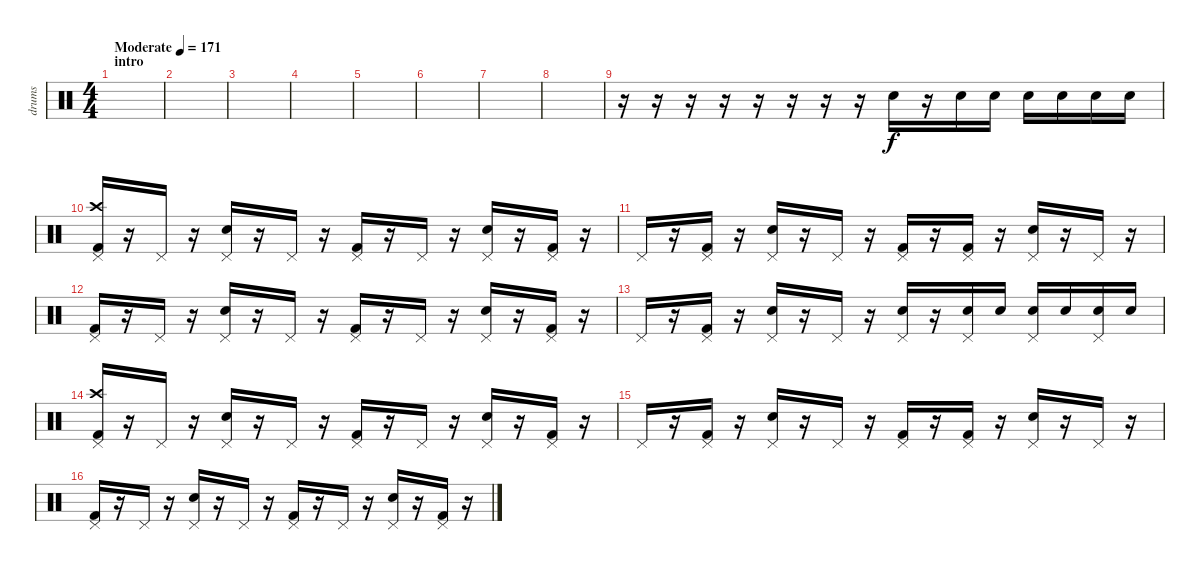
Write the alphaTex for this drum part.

\track ("drums" "drums") {instrument percussion}
\staff {score}
\articulation defaults
\ts (4 4)
\section ("" "intro")
\tempo (171 "Moderate")
\clef neutral
\ks c
|
|
|
|
|
|
|
|
r.16 r.16 r.16 r.16 r.16 r.16 r.16 r.16 "Electric Snare (hit)".16 r.16 "Electric Snare (hit)".16 "Electric Snare (hit)".16 "Electric Snare (hit)".16 "Electric Snare (hit)".16 "Electric Snare (hit)".16 "Electric Snare (hit)".16 |
("Pedal Hi-Hat (hit)" "Crash high (hit)" "Kick (hit) 2").16 r.16 "Pedal Hi-Hat (hit)".16 r.16 ("Pedal Hi-Hat (hit)" "Electric Snare (hit)").16 r.16 "Pedal Hi-Hat (hit)".16 r.16 ("Pedal Hi-Hat (hit)" "Kick (hit) 2").16 r.16 "Pedal Hi-Hat (hit)".16 r.16 ("Pedal Hi-Hat (hit)" "Electric Snare (hit)").16 r.16 ("Pedal Hi-Hat (hit)" "Kick (hit) 2").16 r.16 |
"Pedal Hi-Hat (hit)".16 r.16 ("Pedal Hi-Hat (hit)" "Kick (hit) 2").16 r.16 ("Pedal Hi-Hat (hit)" "Electric Snare (hit)").16 r.16 "Pedal Hi-Hat (hit)".16 r.16 ("Pedal Hi-Hat (hit)" "Kick (hit) 2").16 r.16 ("Pedal Hi-Hat (hit)" "Kick (hit) 2").16 r.16 ("Pedal Hi-Hat (hit)" "Electric Snare (hit)").16 r.16 "Pedal Hi-Hat (hit)".16 r.16 |
("Pedal Hi-Hat (hit)" "Kick (hit) 2").16 r.16 "Pedal Hi-Hat (hit)".16 r.16 ("Pedal Hi-Hat (hit)" "Electric Snare (hit)").16 r.16 "Pedal Hi-Hat (hit)".16 r.16 ("Pedal Hi-Hat (hit)" "Kick (hit) 2").16 r.16 "Pedal Hi-Hat (hit)".16 r.16 ("Pedal Hi-Hat (hit)" "Electric Snare (hit)").16 r.16 ("Pedal Hi-Hat (hit)" "Kick (hit) 2").16 r.16 |
"Pedal Hi-Hat (hit)".16 r.16 ("Pedal Hi-Hat (hit)" "Kick (hit) 2").16 r.16 ("Pedal Hi-Hat (hit)" "Electric Snare (hit)").16 r.16 "Pedal Hi-Hat (hit)".16 r.16 ("Pedal Hi-Hat (hit)" "Electric Snare (hit)").16 r.16 ("Pedal Hi-Hat (hit)" "Electric Snare (hit)").16 "Electric Snare (hit)".16 ("Pedal Hi-Hat (hit)" "Electric Snare (hit)").16 "Electric Snare (hit)".16 ("Pedal Hi-Hat (hit)" "Electric Snare (hit)").16 "Electric Snare (hit)".16 |
("Pedal Hi-Hat (hit)" "Crash high (hit)" "Kick (hit) 2").16 r.16 "Pedal Hi-Hat (hit)".16 r.16 ("Pedal Hi-Hat (hit)" "Electric Snare (hit)").16 r.16 "Pedal Hi-Hat (hit)".16 r.16 ("Pedal Hi-Hat (hit)" "Kick (hit) 2").16 r.16 "Pedal Hi-Hat (hit)".16 r.16 ("Pedal Hi-Hat (hit)" "Electric Snare (hit)").16 r.16 ("Pedal Hi-Hat (hit)" "Kick (hit) 2").16 r.16 |
"Pedal Hi-Hat (hit)".16 r.16 ("Pedal Hi-Hat (hit)" "Kick (hit) 2").16 r.16 ("Pedal Hi-Hat (hit)" "Electric Snare (hit)").16 r.16 "Pedal Hi-Hat (hit)".16 r.16 ("Pedal Hi-Hat (hit)" "Kick (hit) 2").16 r.16 ("Pedal Hi-Hat (hit)" "Kick (hit) 2").16 r.16 ("Pedal Hi-Hat (hit)" "Electric Snare (hit)").16 r.16 "Pedal Hi-Hat (hit)".16 r.16 |
("Pedal Hi-Hat (hit)" "Kick (hit) 2").16 r.16 "Pedal Hi-Hat (hit)".16 r.16 ("Pedal Hi-Hat (hit)" "Electric Snare (hit)").16 r.16 "Pedal Hi-Hat (hit)".16 r.16 ("Pedal Hi-Hat (hit)" "Kick (hit) 2").16 r.16 "Pedal Hi-Hat (hit)".16 r.16 ("Pedal Hi-Hat (hit)" "Electric Snare (hit)").16 r.16 ("Pedal Hi-Hat (hit)" "Kick (hit) 2").16 r.16
